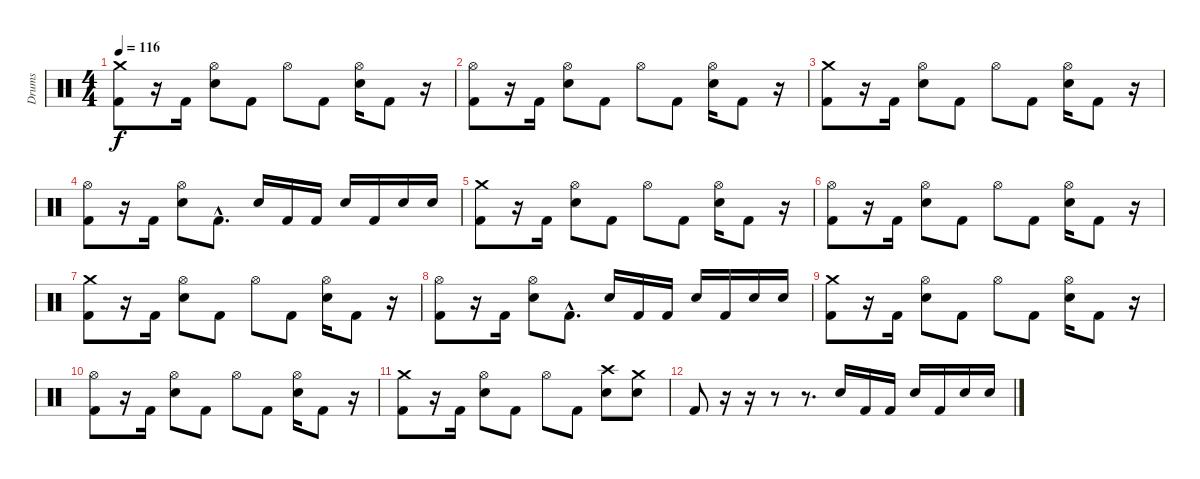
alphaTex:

\track ("Drums" "Drums") {instrument percussion}
\staff {score}
\articulation defaults
\ts (4 4)
\tempo 116
\clef neutral
\ks c
("Crash medium (hit)" "Kick (hit) 2").8{dy f} r.16 "Kick (hit) 2".16 ("Hi-Hat (open)" "Electric Snare (hit)").8 "Kick (hit) 2".8 "Hi-Hat (open)".8 "Kick (hit) 2".8 ("Hi-Hat (open)" "Electric Snare (hit)").16 "Kick (hit) 2".8 r.16 |
("Hi-Hat (open)" "Kick (hit) 2").8 r.16 "Kick (hit) 2".16 ("Hi-Hat (open)" "Electric Snare (hit)").8 "Kick (hit) 2".8 "Hi-Hat (open)".8 "Kick (hit) 2".8 ("Hi-Hat (open)" "Electric Snare (hit)").16 "Kick (hit) 2".8 r.16 |
("Crash medium (hit)" "Kick (hit) 2").8 r.16 "Kick (hit) 2".16 ("Hi-Hat (open)" "Electric Snare (hit)").8 "Kick (hit) 2".8 "Hi-Hat (open)".8 "Kick (hit) 2".8 ("Hi-Hat (open)" "Electric Snare (hit)").16 "Kick (hit) 2".8 r.16 |
("Hi-Hat (open)" "Kick (hit) 2").8 r.16 "Kick (hit) 2".16 ("Hi-Hat (open)" "Electric Snare (hit)").8 "Kick (hit) 2"{hac}.8{d} "Electric Snare (hit)".16 "Kick (hit) 2".16 "Kick (hit) 2".16 "Electric Snare (hit)".16 "Kick (hit) 2".16 "Electric Snare (hit)".16 "Electric Snare (hit)".16 |
("Crash medium (hit)" "Kick (hit) 2").8 r.16 "Kick (hit) 2".16 ("Hi-Hat (open)" "Electric Snare (hit)").8 "Kick (hit) 2".8 "Hi-Hat (open)".8 "Kick (hit) 2".8 ("Hi-Hat (open)" "Electric Snare (hit)").16 "Kick (hit) 2".8 r.16 |
("Hi-Hat (open)" "Kick (hit) 2").8 r.16 "Kick (hit) 2".16 ("Hi-Hat (open)" "Electric Snare (hit)").8 "Kick (hit) 2".8 "Hi-Hat (open)".8 "Kick (hit) 2".8 ("Hi-Hat (open)" "Electric Snare (hit)").16 "Kick (hit) 2".8 r.16 |
("Crash medium (hit)" "Kick (hit) 2").8 r.16 "Kick (hit) 2".16 ("Hi-Hat (open)" "Electric Snare (hit)").8 "Kick (hit) 2".8 "Hi-Hat (open)".8 "Kick (hit) 2".8 ("Hi-Hat (open)" "Electric Snare (hit)").16 "Kick (hit) 2".8 r.16 |
("Hi-Hat (open)" "Kick (hit) 2").8 r.16 "Kick (hit) 2".16 ("Hi-Hat (open)" "Electric Snare (hit)").8 "Kick (hit) 2"{hac}.8{d} "Electric Snare (hit)".16 "Kick (hit) 2".16 "Kick (hit) 2".16 "Electric Snare (hit)".16 "Kick (hit) 2".16 "Electric Snare (hit)".16 "Electric Snare (hit)".16 |
("Crash medium (hit)" "Kick (hit) 2").8 r.16 "Kick (hit) 2".16 ("Hi-Hat (open)" "Electric Snare (hit)").8 "Kick (hit) 2".8 "Hi-Hat (open)".8 "Kick (hit) 2".8 ("Hi-Hat (open)" "Electric Snare (hit)").16 "Kick (hit) 2".8 r.16 |
("Hi-Hat (open)" "Kick (hit) 2").8 r.16 "Kick (hit) 2".16 ("Hi-Hat (open)" "Electric Snare (hit)").8 "Kick (hit) 2".8 "Hi-Hat (open)".8 "Kick (hit) 2".8 ("Hi-Hat (open)" "Electric Snare (hit)").16 "Kick (hit) 2".8 r.16 |
("Crash medium (hit)" "Kick (hit) 2").8 r.16 "Kick (hit) 2".16 ("Hi-Hat (open)" "Electric Snare (hit)").8 "Kick (hit) 2".8 "Hi-Hat (open)".8 "Kick (hit) 2".8 ("Crash high (hit)" "Electric Snare (hit)").8 ("Crash medium (hit)" "Electric Snare (hit)").8 |
"Kick (hit) 2".8 r.16 r.16 r.8 r.8{d} "Electric Snare (hit)".16 "Kick (hit) 2".16 "Kick (hit) 2".16 "Electric Snare (hit)".16 "Kick (hit) 2".16 "Electric Snare (hit)".16 "Electric Snare (hit)".16
